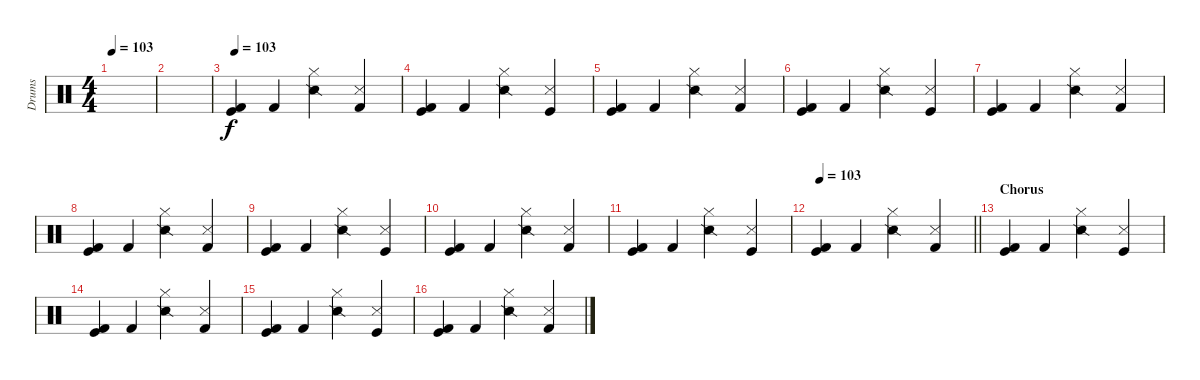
\track ("Drums" "Drums") {instrument percussion}
\staff {score}
\articulation defaults
\ts (4 4)
\tempo 103
\clef neutral
\ks c
|
|
\tempo 103
("Kick (hit)" "Kick (hit) 2").4 "Kick (hit) 2".4 ("Snare (side stick) 2" "Hi-Hat (closed)").4 ("Snare (side stick) 3" "Kick (hit) 2").4 |
("Kick (hit)" "Kick (hit) 2").4 "Kick (hit) 2".4 ("Snare (side stick) 2" "Hi-Hat (closed)").4 ("Snare (side stick) 3" "Kick (hit)").4 |
("Kick (hit)" "Kick (hit) 2").4 "Kick (hit) 2".4 ("Snare (side stick) 2" "Hi-Hat (closed)").4 ("Snare (side stick) 3" "Kick (hit) 2").4 |
("Kick (hit)" "Kick (hit) 2").4 "Kick (hit) 2".4 ("Snare (side stick) 2" "Hi-Hat (closed)").4 ("Snare (side stick) 3" "Kick (hit)").4 |
("Kick (hit)" "Kick (hit) 2").4 "Kick (hit) 2".4 ("Snare (side stick) 2" "Hi-Hat (closed)").4 ("Snare (side stick) 3" "Kick (hit) 2").4 |
("Kick (hit)" "Kick (hit) 2").4 "Kick (hit) 2".4 ("Snare (side stick) 2" "Hi-Hat (closed)").4 ("Snare (side stick) 3" "Kick (hit) 2").4 |
("Kick (hit)" "Kick (hit) 2").4 "Kick (hit) 2".4 ("Snare (side stick) 2" "Hi-Hat (closed)").4 ("Snare (side stick) 3" "Kick (hit)").4 |
("Kick (hit)" "Kick (hit) 2").4 "Kick (hit) 2".4 ("Snare (side stick) 2" "Hi-Hat (closed)").4 ("Snare (side stick) 3" "Kick (hit) 2").4 |
("Kick (hit)" "Kick (hit) 2").4 "Kick (hit) 2".4 ("Snare (side stick) 2" "Hi-Hat (closed)").4 ("Snare (side stick) 3" "Kick (hit)").4 |
\tempo 103
\barLineRight lightlight
("Kick (hit)" "Kick (hit) 2").4 "Kick (hit) 2".4 ("Snare (side stick) 2" "Hi-Hat (closed)").4 ("Snare (side stick) 3" "Kick (hit) 2").4 |
\section ("" "Chorus")
("Kick (hit)" "Kick (hit) 2").4 "Kick (hit) 2".4 ("Snare (side stick) 2" "Hi-Hat (closed)").4 ("Snare (side stick) 3" "Kick (hit)").4 |
("Kick (hit)" "Kick (hit) 2").4 "Kick (hit) 2".4 ("Snare (side stick) 2" "Hi-Hat (closed)").4 ("Snare (side stick) 3" "Kick (hit) 2").4 |
("Kick (hit)" "Kick (hit) 2").4 "Kick (hit) 2".4 ("Snare (side stick) 2" "Hi-Hat (closed)").4 ("Snare (side stick) 3" "Kick (hit)").4 |
("Kick (hit)" "Kick (hit) 2").4 "Kick (hit) 2".4 ("Snare (side stick) 2" "Hi-Hat (closed)").4 ("Snare (side stick) 3" "Kick (hit) 2").4
